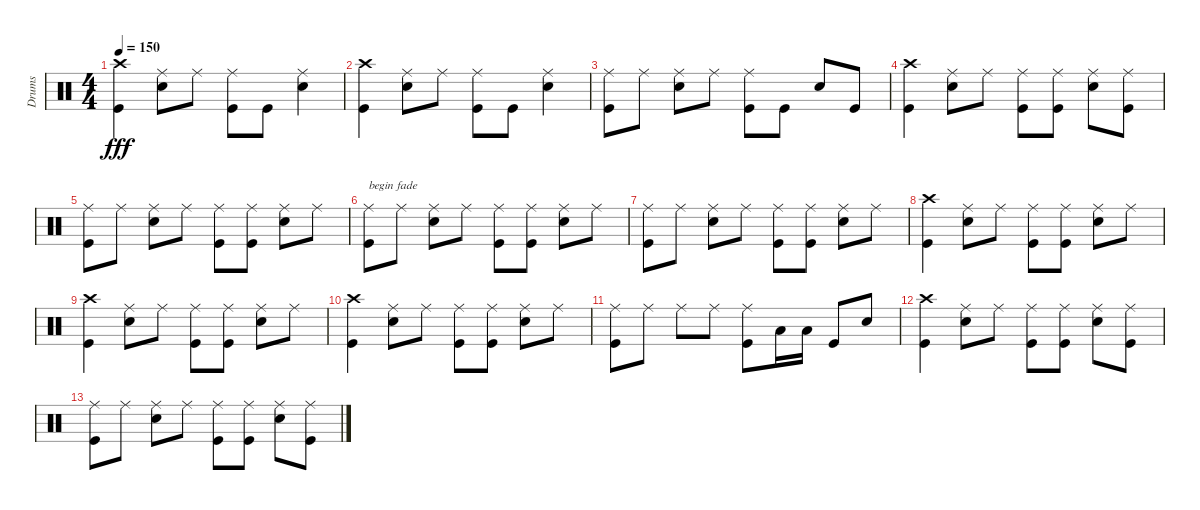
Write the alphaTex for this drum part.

\track ("Drums" "Drums") {instrument percussion}
\staff {score}
\articulation defaults
\ts (4 4)
\tempo 150
\clef neutral
\ks c
("Crash high (hit)" "Kick (hit)").4{dy fff} ("Ride (middle)" "Snare (hit) 2").8 "Ride (middle)".8 ("Ride (middle)" "Kick (hit)").8 "Kick (hit)".8 ("Ride (middle)" "Snare (hit) 2").4 |
("Crash high (hit)" "Kick (hit)").4 ("Ride (middle)" "Snare (hit) 2").8 "Ride (middle)".8 ("Ride (middle)" "Kick (hit)").8 "Kick (hit)".8 ("Ride (middle)" "Snare (hit) 2").4 |
("Ride (middle)" "Kick (hit)").8 "Ride (middle)".8 ("Ride (middle)" "Snare (hit) 2").8 "Ride (middle)".8 ("Ride (middle)" "Kick (hit)").8 "Kick (hit)".8 "Snare (hit) 2".8 "Kick (hit)".8 |
("Crash high (hit)" "Kick (hit)").4 ("Ride (middle)" "Snare (hit) 2").8 "Ride (middle)".8 ("Ride (middle)" "Kick (hit)").8 ("Ride (middle)" "Kick (hit)").8 ("Ride (middle)" "Snare (hit) 2").8 ("Ride (middle)" "Kick (hit)").8 |
("Ride (middle)" "Kick (hit)").8 "Ride (middle)".8 ("Ride (middle)" "Snare (hit) 2").8 "Ride (middle)".8 ("Ride (middle)" "Kick (hit)").8 ("Ride (middle)" "Kick (hit)").8 ("Ride (middle)" "Snare (hit) 2").8 "Ride (middle)".8 |
("Ride (middle)" "Kick (hit)").8{txt "begin fade" volume 11} "Ride (middle)".8 ("Ride (middle)" "Snare (hit) 2").8 "Ride (middle)".8 ("Ride (middle)" "Kick (hit)").8 ("Ride (middle)" "Kick (hit)").8 ("Ride (middle)" "Snare (hit) 2").8 "Ride (middle)".8 |
("Ride (middle)" "Kick (hit)").8 "Ride (middle)".8 ("Ride (middle)" "Snare (hit) 2").8 "Ride (middle)".8 ("Ride (middle)" "Kick (hit)").8 ("Ride (middle)" "Kick (hit)").8 ("Ride (middle)" "Snare (hit) 2").8 "Ride (middle)".8 |
("Crash high (hit)" "Kick (hit)").4{volume 8} ("Ride (middle)" "Snare (hit) 2").8 "Ride (middle)".8 ("Ride (middle)" "Kick (hit)").8 ("Ride (middle)" "Kick (hit)").8 ("Ride (middle)" "Snare (hit) 2").8 "Ride (middle)".8 |
("Crash high (hit)" "Kick (hit)").4 ("Ride (middle)" "Snare (hit) 2").8 "Ride (middle)".8 ("Ride (middle)" "Kick (hit)").8 ("Ride (middle)" "Kick (hit)").8 ("Ride (middle)" "Snare (hit) 2").8 "Ride (middle)".8 |
("Crash high (hit)" "Kick (hit)").4{volume 6} ("Ride (middle)" "Snare (hit) 2").8 "Ride (middle)".8 ("Ride (middle)" "Kick (hit)").8 ("Ride (middle)" "Kick (hit)").8 ("Ride (middle)" "Snare (hit) 2").8 "Ride (middle)".8 |
("Ride (middle)" "Kick (hit)").8 "Ride (middle)".8 "Ride (middle)".8 "Ride (middle)".8 ("Ride (middle)" "Kick (hit)").8 "Low Tom (hit)".16 "Low Tom (hit)".16 "Kick (hit)".8 "Snare (hit) 2".8 |
("Crash high (hit)" "Kick (hit)").4{volume 0} ("Ride (middle)" "Snare (hit) 2").8 "Ride (middle)".8 ("Ride (middle)" "Kick (hit)").8 ("Ride (middle)" "Kick (hit)").8 ("Ride (middle)" "Snare (hit) 2").8 ("Ride (middle)" "Kick (hit)").8 |
("Ride (middle)" "Kick (hit)").8 "Ride (middle)".8 ("Ride (middle)" "Snare (hit) 2").8 "Ride (middle)".8 ("Ride (middle)" "Kick (hit)").8 ("Ride (middle)" "Kick (hit)").8 ("Ride (middle)" "Snare (hit) 2").8 ("Ride (middle)" "Kick (hit)").8
